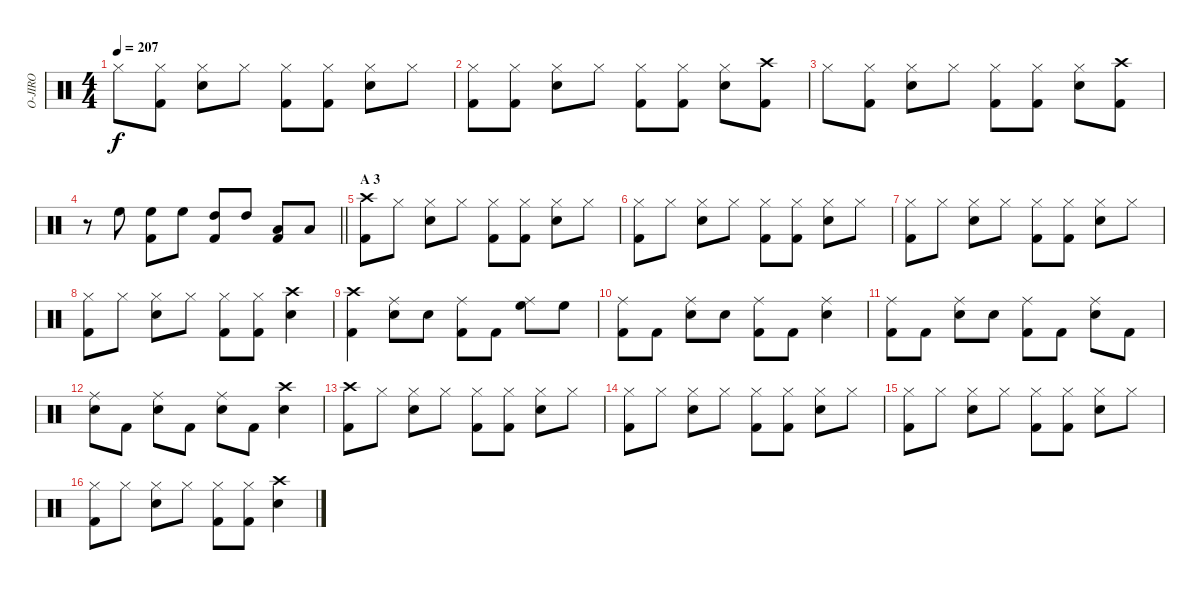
\track ("O-JIRO" "O-JIRO") {instrument percussion}
\staff {score}
\articulation defaults
\ts (4 4)
\tempo 207
\clef neutral
\ks c "Hi-Hat (closed)".8{dy f}
("Hi-Hat (closed)" "Kick (hit) 2").8 ("Hi-Hat (closed)" "Snare (hit) 2").8 "Hi-Hat (closed)".8 ("Hi-Hat (closed)" "Kick (hit) 2").8 ("Hi-Hat (closed)" "Kick (hit) 2").8 ("Hi-Hat (closed)" "Snare (hit) 2").8 "Hi-Hat (closed)".8 |
("Hi-Hat (closed)" "Kick (hit) 2").8 ("Hi-Hat (closed)" "Kick (hit) 2").8 ("Hi-Hat (closed)" "Snare (hit) 2").8 "Hi-Hat (closed)".8 ("Hi-Hat (closed)" "Kick (hit) 2").8 ("Hi-Hat (closed)" "Kick (hit) 2").8 ("Hi-Hat (closed)" "Snare (hit) 2").8 ("Crash high (hit)" "Kick (hit) 2").8 |
"Hi-Hat (closed)".8 ("Hi-Hat (closed)" "Kick (hit) 2").8 ("Hi-Hat (closed)" "Snare (hit) 2").8 "Hi-Hat (closed)".8 ("Hi-Hat (closed)" "Kick (hit) 2").8 ("Hi-Hat (closed)" "Kick (hit) 2").8 ("Hi-Hat (closed)" "Snare (hit) 2").8 ("Crash high (hit)" "Kick (hit) 2").8 |
\barLineRight lightlight
r.8 "High Floor Tom (hit)".8 ("High Floor Tom (hit)" "Kick (hit) 2").8 "High Floor Tom (hit)".8 ("High Tom (hit)" "Kick (hit) 2").8 "High Tom (hit)".8 ("Low Tom (hit)" "Kick (hit) 2").8 "Low Tom (hit)".8 |
\section ("" "A 3")
("Crash high (hit)" "Kick (hit) 2").8 "Hi-Hat (closed)".8 ("Hi-Hat (closed)" "Snare (hit) 2").8 "Hi-Hat (closed)".8 ("Hi-Hat (closed)" "Kick (hit) 2").8 ("Hi-Hat (closed)" "Kick (hit) 2").8 ("Hi-Hat (closed)" "Snare (hit) 2").8 "Hi-Hat (closed)".8 |
("Hi-Hat (closed)" "Kick (hit) 2").8 "Hi-Hat (closed)".8 ("Hi-Hat (closed)" "Snare (hit) 2").8 "Hi-Hat (closed)".8 ("Hi-Hat (closed)" "Kick (hit) 2").8 ("Hi-Hat (closed)" "Kick (hit) 2").8 ("Hi-Hat (closed)" "Snare (hit) 2").8 "Hi-Hat (closed)".8 |
("Hi-Hat (closed)" "Kick (hit) 2").8 "Hi-Hat (closed)".8 ("Hi-Hat (closed)" "Snare (hit) 2").8 "Hi-Hat (closed)".8 ("Hi-Hat (closed)" "Kick (hit) 2").8 ("Hi-Hat (closed)" "Kick (hit) 2").8 ("Hi-Hat (closed)" "Snare (hit) 2").8 "Hi-Hat (closed)".8 |
("Hi-Hat (closed)" "Kick (hit) 2").8 "Hi-Hat (closed)".8 ("Hi-Hat (closed)" "Snare (hit) 2").8 "Hi-Hat (closed)".8 ("Hi-Hat (closed)" "Kick (hit) 2").8 ("Hi-Hat (closed)" "Kick (hit) 2").8 ("Crash high (hit)" "Snare (hit) 2").4 |
("Crash high (hit)" "Kick (hit) 2").4 ("Ride (middle)" "Snare (hit) 2").8 "Snare (hit) 2".8 ("Ride (middle)" "Kick (hit) 2").8 "Kick (hit) 2".8 ("Ride (middle)" "High Floor Tom (hit)").8 "High Floor Tom (hit)".8 |
("Kick (hit) 2" "Ride (middle)").8 "Kick (hit) 2".8 ("Ride (middle)" "Snare (hit) 2").8 "Snare (hit) 2".8 ("Ride (middle)" "Kick (hit) 2").8 "Kick (hit) 2".8 ("Ride (middle)" "Snare (hit) 2").4 |
("Kick (hit) 2" "Ride (middle)").8 "Kick (hit) 2".8 ("Ride (middle)" "Snare (hit) 2").8 "Snare (hit) 2".8 ("Ride (middle)" "Kick (hit) 2").8 "Kick (hit) 2".8 ("Ride (middle)" "Snare (hit) 2").8 "Kick (hit) 2".8 |
("Ride (middle)" "Snare (hit) 2").8 "Kick (hit) 2".8 ("Ride (middle)" "Snare (hit) 2").8 "Kick (hit) 2".8 ("Ride (middle)" "Snare (hit) 2").8 "Kick (hit) 2".8 ("Crash high (hit)" "Snare (hit) 2").4 |
("Crash high (hit)" "Kick (hit) 2").8 "Hi-Hat (closed)".8 ("Hi-Hat (closed)" "Snare (hit) 2").8 "Hi-Hat (closed)".8 ("Hi-Hat (closed)" "Kick (hit) 2").8 ("Hi-Hat (closed)" "Kick (hit) 2").8 ("Hi-Hat (closed)" "Snare (hit) 2").8 "Hi-Hat (closed)".8 |
("Hi-Hat (closed)" "Kick (hit) 2").8 "Hi-Hat (closed)".8 ("Hi-Hat (closed)" "Snare (hit) 2").8 "Hi-Hat (closed)".8 ("Hi-Hat (closed)" "Kick (hit) 2").8 ("Hi-Hat (closed)" "Kick (hit) 2").8 ("Hi-Hat (closed)" "Snare (hit) 2").8 "Hi-Hat (closed)".8 |
("Hi-Hat (closed)" "Kick (hit) 2").8 "Hi-Hat (closed)".8 ("Hi-Hat (closed)" "Snare (hit) 2").8 "Hi-Hat (closed)".8 ("Hi-Hat (closed)" "Kick (hit) 2").8 ("Hi-Hat (closed)" "Kick (hit) 2").8 ("Hi-Hat (closed)" "Snare (hit) 2").8 "Hi-Hat (closed)".8 |
("Hi-Hat (closed)" "Kick (hit) 2").8 "Hi-Hat (closed)".8 ("Hi-Hat (closed)" "Snare (hit) 2").8 "Hi-Hat (closed)".8 ("Hi-Hat (closed)" "Kick (hit) 2").8 ("Hi-Hat (closed)" "Kick (hit) 2").8 ("Crash high (hit)" "Snare (hit) 2").4
